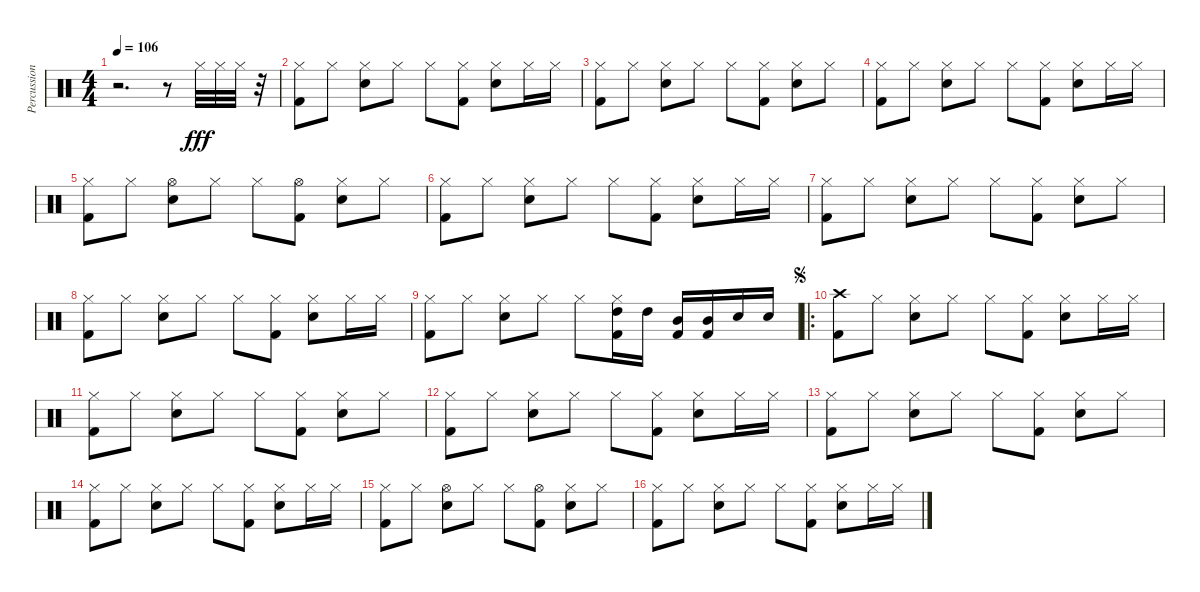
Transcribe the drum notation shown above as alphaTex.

\track ("Percussion" "Percussion") {instrument percussion}
\staff {score}
\articulation defaults
\ts (4 4)
\tempo 106
\clef neutral
\ks c
r.2{d dy fff} r.8 "Hi-Hat (closed)".32 "Hi-Hat (closed)".32 "Hi-Hat (closed)".32 r.32 |
("Kick (hit) 2" "Hi-Hat (closed)").8 "Hi-Hat (closed)".8 ("Snare (hit) 2" "Hi-Hat (closed)").8 "Hi-Hat (closed)".8 "Hi-Hat (closed)".8 ("Kick (hit) 2" "Hi-Hat (closed)").8 ("Snare (hit) 2" "Hi-Hat (closed)").8 "Hi-Hat (closed)".16 "Hi-Hat (closed)".16 |
("Kick (hit) 2" "Hi-Hat (closed)").8 "Hi-Hat (closed)".8 ("Snare (hit) 2" "Hi-Hat (closed)").8 "Hi-Hat (closed)".8 "Hi-Hat (closed)".8 ("Kick (hit) 2" "Hi-Hat (closed)").8 ("Snare (hit) 2" "Hi-Hat (closed)").8 "Hi-Hat (closed)".8 |
("Kick (hit) 2" "Hi-Hat (closed)").8 "Hi-Hat (closed)".8 ("Snare (hit) 2" "Hi-Hat (closed)").8 "Hi-Hat (closed)".8 "Hi-Hat (closed)".8 ("Kick (hit) 2" "Hi-Hat (closed)").8 ("Snare (hit) 2" "Hi-Hat (closed)").8 "Hi-Hat (closed)".16 "Hi-Hat (closed)".16 |
("Kick (hit) 2" "Hi-Hat (closed)").8 "Hi-Hat (closed)".8 ("Snare (hit) 2" "Hi-Hat (open)").8 "Hi-Hat (closed)".8 "Hi-Hat (closed)".8 ("Kick (hit) 2" "Hi-Hat (open)").8 ("Snare (hit) 2" "Hi-Hat (closed)").8 "Hi-Hat (closed)".8 |
("Kick (hit) 2" "Hi-Hat (closed)").8 "Hi-Hat (closed)".8 ("Snare (hit) 2" "Hi-Hat (closed)").8 "Hi-Hat (closed)".8 "Hi-Hat (closed)".8 ("Kick (hit) 2" "Hi-Hat (closed)").8 ("Snare (hit) 2" "Hi-Hat (closed)").8 "Hi-Hat (closed)".16 "Hi-Hat (closed)".16 |
("Kick (hit) 2" "Hi-Hat (closed)").8 "Hi-Hat (closed)".8 ("Snare (hit) 2" "Hi-Hat (closed)").8 "Hi-Hat (closed)".8 "Hi-Hat (closed)".8 ("Kick (hit) 2" "Hi-Hat (closed)").8 ("Snare (hit) 2" "Hi-Hat (closed)").8 "Hi-Hat (closed)".8 |
("Kick (hit) 2" "Hi-Hat (closed)").8 "Hi-Hat (closed)".8 ("Snare (hit) 2" "Hi-Hat (closed)").8 "Hi-Hat (closed)".8 "Hi-Hat (closed)".8 ("Kick (hit) 2" "Hi-Hat (closed)").8 ("Snare (hit) 2" "Hi-Hat (closed)").8 "Hi-Hat (closed)".16 "Hi-Hat (closed)".16 |
("Kick (hit) 2" "Hi-Hat (closed)").8 "Hi-Hat (closed)".8 ("Snare (hit) 2" "Hi-Hat (closed)").8 "Hi-Hat (closed)".8 "Hi-Hat (closed)".8 ("Hi-Hat (closed)" "Kick (hit) 2" "High Tom (hit)").16 "High Tom (hit)".16 ("Kick (hit) 2" "Mid Tom (hit)").16 ("Kick (hit) 2" "Mid Tom (hit)").16 "Snare (hit) 2".16 "Snare (hit) 2".16 |
\ro
\jump segno
("Kick (hit) 2" "Crash high (hit)").8 "Hi-Hat (closed)".8 ("Snare (hit) 2" "Hi-Hat (closed)").8 "Hi-Hat (closed)".8 "Hi-Hat (closed)".8 ("Kick (hit) 2" "Hi-Hat (closed)").8 ("Snare (hit) 2" "Hi-Hat (closed)").8 "Hi-Hat (closed)".16 "Hi-Hat (closed)".16 |
("Kick (hit) 2" "Hi-Hat (closed)").8 "Hi-Hat (closed)".8 ("Snare (hit) 2" "Hi-Hat (closed)").8 "Hi-Hat (closed)".8 "Hi-Hat (closed)".8 ("Kick (hit) 2" "Hi-Hat (closed)").8 ("Snare (hit) 2" "Hi-Hat (closed)").8 "Hi-Hat (closed)".8 |
("Kick (hit) 2" "Hi-Hat (closed)").8 "Hi-Hat (closed)".8 ("Snare (hit) 2" "Hi-Hat (closed)").8 "Hi-Hat (closed)".8 "Hi-Hat (closed)".8 ("Kick (hit) 2" "Hi-Hat (closed)").8 ("Snare (hit) 2" "Hi-Hat (closed)").8 "Hi-Hat (closed)".16 "Hi-Hat (closed)".16 |
("Kick (hit) 2" "Hi-Hat (closed)").8 "Hi-Hat (closed)".8 ("Snare (hit) 2" "Hi-Hat (closed)").8 "Hi-Hat (closed)".8 "Hi-Hat (closed)".8 ("Kick (hit) 2" "Hi-Hat (closed)").8 ("Snare (hit) 2" "Hi-Hat (closed)").8 "Hi-Hat (closed)".8 |
("Kick (hit) 2" "Hi-Hat (closed)").8 "Hi-Hat (closed)".8 ("Snare (hit) 2" "Hi-Hat (closed)").8 "Hi-Hat (closed)".8 "Hi-Hat (closed)".8 ("Kick (hit) 2" "Hi-Hat (closed)").8 ("Snare (hit) 2" "Hi-Hat (closed)").8 "Hi-Hat (closed)".16 "Hi-Hat (closed)".16 |
("Kick (hit) 2" "Hi-Hat (closed)").8 "Hi-Hat (closed)".8 ("Snare (hit) 2" "Hi-Hat (open)").8 "Hi-Hat (closed)".8 "Hi-Hat (closed)".8 ("Kick (hit) 2" "Hi-Hat (open)").8 ("Snare (hit) 2" "Hi-Hat (closed)").8 "Hi-Hat (closed)".8 |
("Kick (hit) 2" "Hi-Hat (closed)").8 "Hi-Hat (closed)".8 ("Snare (hit) 2" "Hi-Hat (closed)").8 "Hi-Hat (closed)".8 "Hi-Hat (closed)".8 ("Kick (hit) 2" "Hi-Hat (closed)").8 ("Snare (hit) 2" "Hi-Hat (closed)").8 "Hi-Hat (closed)".16 "Hi-Hat (closed)".16
